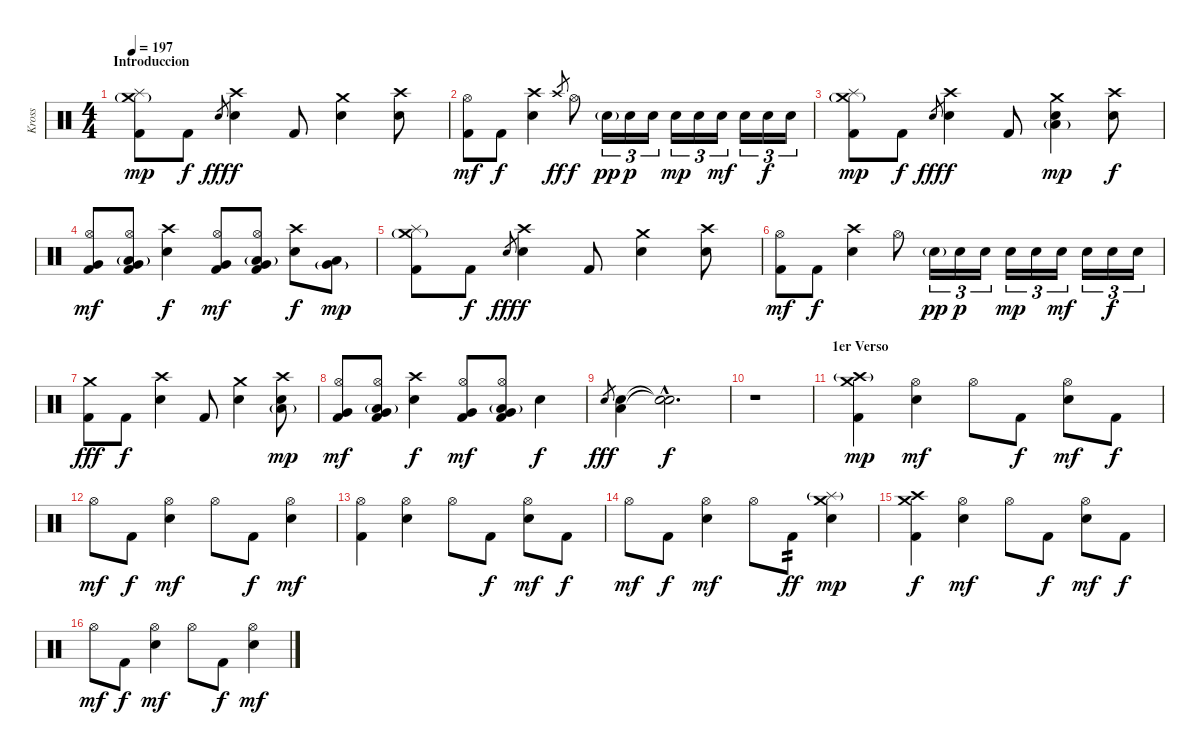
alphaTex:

\track ("Kross" "Kross") {instrument percussion}
\staff {score}
\articulation defaults
\ts (4 4)
\section ("" "Introduccion")
\tempo 197
\clef neutral
\ks c
("Splash (hit)" "Crash medium (hit)"{g} "Kick (hit) 2").8{dy mp} "Kick (hit) 2".8{dy f} "Electric Snare (hit)".8{gr dy fff} ("Crash high (hit)" "Electric Snare (hit)").4{dy f} "Kick (hit) 2".8 ("Crash medium (hit)" "Electric Snare (hit)").4 ("Crash high (hit)" "Electric Snare (hit)").8 |
("Hi-Hat (open)" "Kick (hit) 2").8{dy mf} "Kick (hit) 2".8{dy f} ("Crash high (hit)" "Electric Snare (hit)").4 "Crash high (hit)".8{gr dy ff} "Hi-Hat (open)".8{dy f} "Electric Snare (hit)"{g}.16{tu (3 2) dy pp} "Electric Snare (hit)".16{tu (3 2) dy p} "Electric Snare (hit)".16{tu (3 2)} "Electric Snare (hit)".16{tu (3 2) dy mp} "Electric Snare (hit)".16{tu (3 2)} "Electric Snare (hit)".16{tu (3 2) dy mf} "Electric Snare (hit)".16{tu (3 2)} "Electric Snare (hit)".16{tu (3 2) dy f} "Electric Snare (hit)".16{tu (3 2)} |
("Splash (hit)" "Crash medium (hit)"{g} "Kick (hit) 2").8{dy mp} "Kick (hit) 2".8{dy f} "Electric Snare (hit)".8{gr dy fff} ("Crash high (hit)" "Electric Snare (hit)").4{dy f} "Kick (hit) 2".8 ("Crash medium (hit)" "Electric Snare (hit)" "Low Floor Tom (hit)"{g}).4{dy mp} ("Crash high (hit)" "Electric Snare (hit)").8{dy f} |
("Hi-Hat (open)" "Very Low Tom (hit)" "Kick (hit) 2").8{dy mf} ("Hi-Hat (open)" "Low Floor Tom (hit)"{g} "Very Low Tom (hit)" "Kick (hit) 2").8 ("Crash high (hit)" "Electric Snare (hit)").4{dy f} ("Hi-Hat (open)" "Very Low Tom (hit)" "Kick (hit) 2").8{dy mf} ("Hi-Hat (open)" "Low Floor Tom (hit)"{g} "Very Low Tom (hit)" "Kick (hit) 2").8 ("Crash high (hit)" "Electric Snare (hit)").8{dy f} ("Low Floor Tom (hit)" "Very Low Tom (hit)"{g}).8{dy mp} |
("Splash (hit)" "Crash medium (hit)"{g} "Kick (hit) 2").8 "Kick (hit) 2".8{dy f} "Electric Snare (hit)".8{gr dy fff} ("Crash high (hit)" "Electric Snare (hit)").4{dy f} "Kick (hit) 2".8 ("Crash medium (hit)" "Electric Snare (hit)").4 ("Crash high (hit)" "Electric Snare (hit)").8 |
("Hi-Hat (open)" "Kick (hit) 2").8{dy mf} "Kick (hit) 2".8{dy f} ("Crash high (hit)" "Electric Snare (hit)").4 "Hi-Hat (open)".8 "Electric Snare (hit)"{g}.16{tu (3 2) dy pp} "Electric Snare (hit)".16{tu (3 2) dy p} "Electric Snare (hit)".16{tu (3 2)} "Electric Snare (hit)".16{tu (3 2) dy mp} "Electric Snare (hit)".16{tu (3 2)} "Electric Snare (hit)".16{tu (3 2) dy mf} "Electric Snare (hit)".16{tu (3 2)} "Electric Snare (hit)".16{tu (3 2) dy f} "Electric Snare (hit)".16{tu (3 2)} |
("Crash medium (hit)" "Kick (hit) 2").8{dy fff} "Kick (hit) 2".8{dy f} ("Crash high (hit)" "Electric Snare (hit)").4 "Kick (hit) 2".8 ("Crash medium (hit)" "Electric Snare (hit)").4 ("Crash high (hit)" "Electric Snare (hit)" "Low Floor Tom (hit)"{g}).8{dy mp} |
("Hi-Hat (open)" "Very Low Tom (hit)" "Kick (hit) 2").8{dy mf} ("Hi-Hat (open)" "Low Floor Tom (hit)"{g} "Very Low Tom (hit)" "Kick (hit) 2").8 ("Crash high (hit)" "Electric Snare (hit)").4{dy f} ("Hi-Hat (open)" "Very Low Tom (hit)" "Kick (hit) 2").8{dy mf} ("Hi-Hat (open)" "Low Floor Tom (hit)"{g} "Very Low Tom (hit)" "Kick (hit) 2").8 "Electric Snare (hit)".4{dy f} |
"Electric Snare (hit)".8{gr dy fff} ("Electric Snare (hit)" "Low Floor Tom (hit)").4 ("Snare (hit)"{hac t} "Snare (hit)"{hac t}).2{d dy f} |
r.1 |
\section ("" "1er Verso")
("Crash medium (hit)" "Crash high (hit)"{g} "Kick (hit) 2").4{dy mp} ("Hi-Hat (open)" "Electric Snare (hit)").4{dy mf} "Hi-Hat (open)".8 "Kick (hit) 2".8{dy f} ("Hi-Hat (open)" "Electric Snare (hit)").8{dy mf} "Kick (hit) 2".8{dy f} |
"Hi-Hat (open)".8{dy mf} "Kick (hit) 2".8{dy f} ("Hi-Hat (open)" "Electric Snare (hit)").4{dy mf} "Hi-Hat (open)".8 "Kick (hit) 2".8{dy f} ("Hi-Hat (open)" "Electric Snare (hit)").4{dy mf} |
("Hi-Hat (open)" "Kick (hit) 2").4 ("Hi-Hat (open)" "Electric Snare (hit)").4 "Hi-Hat (open)".8 "Kick (hit) 2".8{dy f} ("Hi-Hat (open)" "Electric Snare (hit)").8{dy mf} "Kick (hit) 2".8{dy f} |
"Hi-Hat (open)".8{dy mf} "Kick (hit) 2".8{dy f} ("Hi-Hat (open)" "Electric Snare (hit)").4{dy mf} "Hi-Hat (open)".8 "Kick (hit) 2".8{tp 2 dy ff} ("Crash medium (hit)" "Splash (hit)"{g} "Electric Snare (hit)").4{dy mp} |
("Crash medium (hit)" "Crash high (hit)" "Kick (hit) 2").4{dy f} ("Hi-Hat (open)" "Electric Snare (hit)").4{dy mf} "Hi-Hat (open)".8 "Kick (hit) 2".8{dy f} ("Hi-Hat (open)" "Electric Snare (hit)").8{dy mf} "Kick (hit) 2".8{dy f} |
"Hi-Hat (open)".8{dy mf} "Kick (hit) 2".8{dy f} ("Hi-Hat (open)" "Electric Snare (hit)").4{dy mf} "Hi-Hat (open)".8 "Kick (hit) 2".8{dy f} ("Hi-Hat (open)" "Electric Snare (hit)").4{dy mf}
